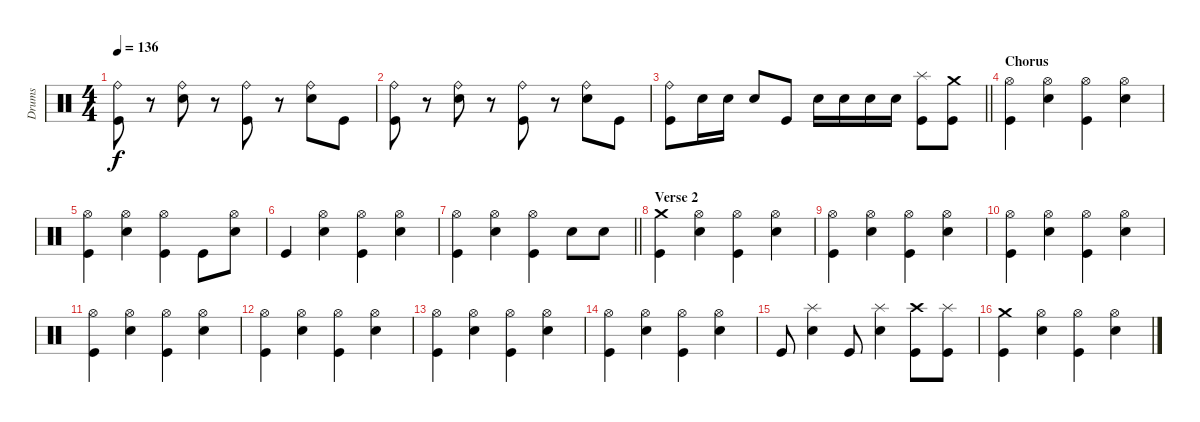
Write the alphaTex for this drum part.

\track ("Drums" "Drums") {instrument percussion}
\staff {score}
\articulation defaults
\ts (4 4)
\tempo 136
\clef neutral
\ks c
("Kick (hit)" "Ride (bell)").8{dy f} r.8 ("Electric Snare (hit)" "Ride (bell)").8 r.8 ("Kick (hit)" "Ride (bell)").8 r.8 ("Electric Snare (hit)" "Ride (bell)").8 "Kick (hit)".8 |
("Kick (hit)" "Ride (bell)").8 r.8 ("Electric Snare (hit)" "Ride (bell)").8 r.8 ("Kick (hit)" "Ride (bell)").8 r.8 ("Electric Snare (hit)" "Ride (bell)").8 "Kick (hit)".8 |
\barLineRight lightlight
("Kick (hit)" "Ride (bell)").8 "Electric Snare (hit)".16 "Electric Snare (hit)".16 "Electric Snare (hit)".8 "Kick (hit)".8 "Electric Snare (hit)".16 "Electric Snare (hit)".16 "Electric Snare (hit)".16 "Electric Snare (hit)".16 ("Kick (hit)" "Splash (hit)").8 ("Kick (hit)" "Crash medium (hit)").8 |
\section ("" "Chorus")
("Kick (hit)" "Hi-Hat (open)").4 ("Electric Snare (hit)" "Hi-Hat (open)").4 ("Kick (hit)" "Hi-Hat (open)").4 ("Electric Snare (hit)" "Hi-Hat (open)").4 |
("Kick (hit)" "Hi-Hat (open)").4 ("Electric Snare (hit)" "Hi-Hat (open)").4 ("Kick (hit)" "Hi-Hat (open)").4 "Kick (hit)".8 ("Electric Snare (hit)" "Hi-Hat (open)").8 |
"Kick (hit)".4 ("Electric Snare (hit)" "Hi-Hat (open)").4 ("Kick (hit)" "Hi-Hat (open)").4 ("Electric Snare (hit)" "Hi-Hat (open)").4 |
\barLineRight lightlight
("Kick (hit)" "Hi-Hat (open)").4 ("Electric Snare (hit)" "Hi-Hat (open)").4 ("Kick (hit)" "Hi-Hat (open)").4 "Electric Snare (hit)".8 "Electric Snare (hit)".8 |
\section ("" "Verse 2")
("Kick (hit)" "Crash medium (hit)").4 ("Electric Snare (hit)" "Hi-Hat (open)").4 ("Kick (hit)" "Hi-Hat (open)").4 ("Electric Snare (hit)" "Hi-Hat (open)").4 |
("Kick (hit)" "Hi-Hat (open)").4 ("Electric Snare (hit)" "Hi-Hat (open)").4 ("Kick (hit)" "Hi-Hat (open)").4 ("Electric Snare (hit)" "Hi-Hat (open)").4 |
("Kick (hit)" "Hi-Hat (open)").4 ("Electric Snare (hit)" "Hi-Hat (open)").4 ("Kick (hit)" "Hi-Hat (open)").4 ("Electric Snare (hit)" "Hi-Hat (open)").4 |
("Kick (hit)" "Hi-Hat (open)").4 ("Electric Snare (hit)" "Hi-Hat (open)").4 ("Kick (hit)" "Hi-Hat (open)").4 ("Electric Snare (hit)" "Hi-Hat (open)").4 |
("Kick (hit)" "Hi-Hat (open)").4 ("Electric Snare (hit)" "Hi-Hat (open)").4 ("Kick (hit)" "Hi-Hat (open)").4 ("Electric Snare (hit)" "Hi-Hat (open)").4 |
("Kick (hit)" "Hi-Hat (open)").4 ("Electric Snare (hit)" "Hi-Hat (open)").4 ("Kick (hit)" "Hi-Hat (open)").4 ("Electric Snare (hit)" "Hi-Hat (open)").4 |
("Kick (hit)" "Hi-Hat (open)").4 ("Electric Snare (hit)" "Hi-Hat (open)").4 ("Kick (hit)" "Hi-Hat (open)").4 ("Electric Snare (hit)" "Hi-Hat (open)").4 |
"Kick (hit)".8 ("Electric Snare (hit)" "Splash (hit)").4 "Kick (hit)".8 ("Electric Snare (hit)" "Splash (hit)").4 ("Kick (hit)" "Crash high (hit)").8 ("Kick (hit)" "Splash (hit)").8 |
("Kick (hit)" "Crash medium (hit)").4 ("Electric Snare (hit)" "Hi-Hat (open)").4 ("Kick (hit)" "Hi-Hat (open)").4 ("Electric Snare (hit)" "Hi-Hat (open)").4
